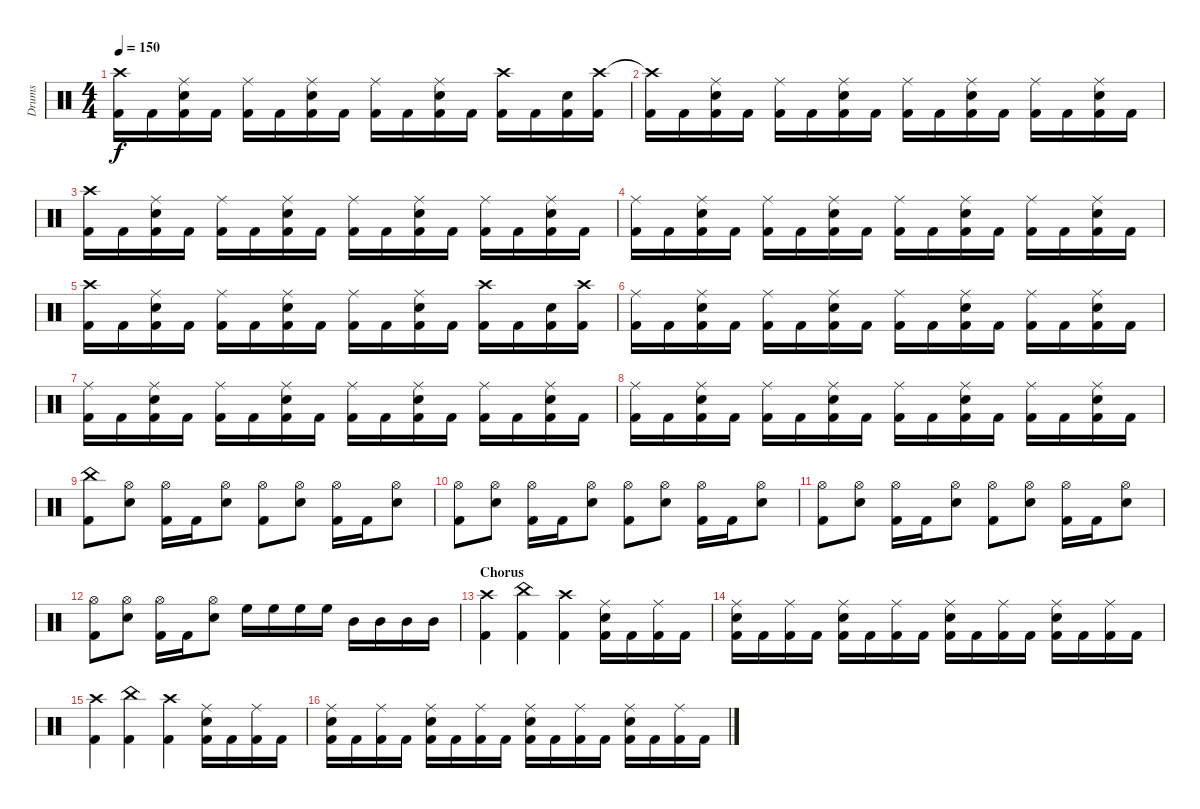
\track ("Drums" "Drums") {instrument percussion}
\staff {score}
\articulation defaults
\ts (4 4)
\tempo 150
\clef neutral
\ks c
("Crash high (hit)" "Kick (hit) 2").16{dy f} "Kick (hit) 2".16 ("Ride (middle)" "Snare (hit) 2" "Kick (hit) 2").16 "Kick (hit) 2".16 ("Ride (middle)" "Kick (hit) 2").16 "Kick (hit) 2".16 ("Ride (middle)" "Snare (hit) 2" "Kick (hit) 2").16 "Kick (hit) 2".16 ("Ride (middle)" "Kick (hit) 2").16 "Kick (hit) 2".16 ("Ride (middle)" "Snare (hit) 2" "Kick (hit) 2").16 "Kick (hit) 2".16 ("Crash high (hit)" "Kick (hit) 2").16 "Kick (hit) 2".16 ("Snare (hit) 2" "Kick (hit) 2").16 ("Crash high (hit)" "Kick (hit) 2").16 |
("Crash high (hit)"{t} "Kick (hit) 2").16 "Kick (hit) 2".16 ("Ride (middle)" "Snare (hit) 2" "Kick (hit) 2").16 "Kick (hit) 2".16 ("Ride (middle)" "Kick (hit) 2").16 "Kick (hit) 2".16 ("Ride (middle)" "Snare (hit) 2" "Kick (hit) 2").16 "Kick (hit) 2".16 ("Ride (middle)" "Kick (hit) 2").16 "Kick (hit) 2".16 ("Ride (middle)" "Snare (hit) 2" "Kick (hit) 2").16 "Kick (hit) 2".16 ("Ride (middle)" "Kick (hit) 2").16 "Kick (hit) 2".16 ("Ride (middle)" "Snare (hit) 2" "Kick (hit) 2").16 "Kick (hit) 2".16 |
("Crash high (hit)" "Kick (hit) 2").16 "Kick (hit) 2".16 ("Ride (middle)" "Snare (hit) 2" "Kick (hit) 2").16 "Kick (hit) 2".16 ("Ride (middle)" "Kick (hit) 2").16 "Kick (hit) 2".16 ("Ride (middle)" "Snare (hit) 2" "Kick (hit) 2").16 "Kick (hit) 2".16 ("Ride (middle)" "Kick (hit) 2").16 "Kick (hit) 2".16 ("Ride (middle)" "Snare (hit) 2" "Kick (hit) 2").16 "Kick (hit) 2".16 ("Ride (middle)" "Kick (hit) 2").16 "Kick (hit) 2".16 ("Ride (middle)" "Snare (hit) 2" "Kick (hit) 2").16 "Kick (hit) 2".16 |
("Ride (middle)" "Kick (hit) 2").16 "Kick (hit) 2".16 ("Ride (middle)" "Snare (hit) 2" "Kick (hit) 2").16 "Kick (hit) 2".16 ("Ride (middle)" "Kick (hit) 2").16 "Kick (hit) 2".16 ("Ride (middle)" "Snare (hit) 2" "Kick (hit) 2").16 "Kick (hit) 2".16 ("Ride (middle)" "Kick (hit) 2").16 "Kick (hit) 2".16 ("Ride (middle)" "Snare (hit) 2" "Kick (hit) 2").16 "Kick (hit) 2".16 ("Ride (middle)" "Kick (hit) 2").16 "Kick (hit) 2".16 ("Ride (middle)" "Snare (hit) 2" "Kick (hit) 2").16 "Kick (hit) 2".16 |
("Crash high (hit)" "Kick (hit) 2").16 "Kick (hit) 2".16 ("Ride (middle)" "Snare (hit) 2" "Kick (hit) 2").16 "Kick (hit) 2".16 ("Ride (middle)" "Kick (hit) 2").16 "Kick (hit) 2".16 ("Ride (middle)" "Snare (hit) 2" "Kick (hit) 2").16 "Kick (hit) 2".16 ("Ride (middle)" "Kick (hit) 2").16 "Kick (hit) 2".16 ("Ride (middle)" "Snare (hit) 2" "Kick (hit) 2").16 "Kick (hit) 2".16 ("Crash high (hit)" "Kick (hit) 2").16 "Kick (hit) 2".16 ("Snare (hit) 2" "Kick (hit) 2").16 ("Crash high (hit)" "Kick (hit) 2").16 |
("Ride (middle)" "Kick (hit) 2").16 "Kick (hit) 2".16 ("Ride (middle)" "Snare (hit) 2" "Kick (hit) 2").16 "Kick (hit) 2".16 ("Ride (middle)" "Kick (hit) 2").16 "Kick (hit) 2".16 ("Ride (middle)" "Snare (hit) 2" "Kick (hit) 2").16 "Kick (hit) 2".16 ("Ride (middle)" "Kick (hit) 2").16 "Kick (hit) 2".16 ("Ride (middle)" "Snare (hit) 2" "Kick (hit) 2").16 "Kick (hit) 2".16 ("Ride (middle)" "Kick (hit) 2").16 "Kick (hit) 2".16 ("Ride (middle)" "Snare (hit) 2" "Kick (hit) 2").16 "Kick (hit) 2".16 |
("Ride (middle)" "Kick (hit) 2").16 "Kick (hit) 2".16 ("Ride (middle)" "Snare (hit) 2" "Kick (hit) 2").16 "Kick (hit) 2".16 ("Ride (middle)" "Kick (hit) 2").16 "Kick (hit) 2".16 ("Ride (middle)" "Snare (hit) 2" "Kick (hit) 2").16 "Kick (hit) 2".16 ("Ride (middle)" "Kick (hit) 2").16 "Kick (hit) 2".16 ("Ride (middle)" "Snare (hit) 2" "Kick (hit) 2").16 "Kick (hit) 2".16 ("Ride (middle)" "Kick (hit) 2").16 "Kick (hit) 2".16 ("Ride (middle)" "Snare (hit) 2" "Kick (hit) 2").16 "Kick (hit) 2".16 |
("Ride (middle)" "Kick (hit) 2").16 "Kick (hit) 2".16 ("Ride (middle)" "Snare (hit) 2" "Kick (hit) 2").16 "Kick (hit) 2".16 ("Ride (middle)" "Kick (hit) 2").16 "Kick (hit) 2".16 ("Ride (middle)" "Snare (hit) 2" "Kick (hit) 2").16 "Kick (hit) 2".16 ("Ride (middle)" "Kick (hit) 2").16 "Kick (hit) 2".16 ("Ride (middle)" "Snare (hit) 2" "Kick (hit) 2").16 "Kick (hit) 2".16 ("Ride (middle)" "Kick (hit) 2").16 "Kick (hit) 2".16 ("Ride (middle)" "Snare (hit) 2" "Kick (hit) 2").16 "Kick (hit) 2".16 |
("China (hit)" "Kick (hit) 2").8 ("Hi-Hat (open)" "Snare (hit) 2").8 ("Hi-Hat (open)" "Kick (hit) 2").16 "Kick (hit) 2".16 ("Hi-Hat (open)" "Snare (hit) 2").8 ("Hi-Hat (open)" "Kick (hit) 2").8 ("Hi-Hat (open)" "Snare (hit) 2").8 ("Hi-Hat (open)" "Kick (hit) 2").16 "Kick (hit) 2".16 ("Hi-Hat (open)" "Snare (hit) 2").8 |
("Hi-Hat (open)" "Kick (hit) 2").8 ("Hi-Hat (open)" "Snare (hit) 2").8 ("Hi-Hat (open)" "Kick (hit) 2").16 "Kick (hit) 2".16 ("Hi-Hat (open)" "Snare (hit) 2").8 ("Hi-Hat (open)" "Kick (hit) 2").8 ("Hi-Hat (open)" "Snare (hit) 2").8 ("Hi-Hat (open)" "Kick (hit) 2").16 "Kick (hit) 2".16 ("Hi-Hat (open)" "Snare (hit) 2").8 |
("Hi-Hat (open)" "Kick (hit) 2").8 ("Hi-Hat (open)" "Snare (hit) 2").8 ("Hi-Hat (open)" "Kick (hit) 2").16 "Kick (hit) 2".16 ("Hi-Hat (open)" "Snare (hit) 2").8 ("Hi-Hat (open)" "Kick (hit) 2").8 ("Hi-Hat (open)" "Snare (hit) 2").8 ("Hi-Hat (open)" "Kick (hit) 2").16 "Kick (hit) 2".16 ("Hi-Hat (open)" "Snare (hit) 2").8 |
("Hi-Hat (open)" "Kick (hit) 2").8 ("Hi-Hat (open)" "Snare (hit) 2").8 ("Hi-Hat (open)" "Kick (hit) 2").16 "Kick (hit) 2".16 ("Hi-Hat (open)" "Snare (hit) 2").8 "High Floor Tom (hit)".16 "High Floor Tom (hit)".16 "High Floor Tom (hit)".16 "High Floor Tom (hit)".16 "Mid Tom (hit)".16 "Mid Tom (hit)".16 "Mid Tom (hit)".16 "Mid Tom (hit)".16 |
\section ("" "Chorus")
("Crash high (hit)" "Kick (hit) 2").4 ("China (hit)" "Kick (hit) 2").4 ("Crash high (hit)" "Kick (hit) 2").4 ("Ride (middle)" "Snare (hit) 2" "Kick (hit) 2").16 "Kick (hit) 2".16 ("Ride (middle)" "Kick (hit) 2").16 "Kick (hit) 2".16 |
("Ride (middle)" "Snare (hit) 2" "Kick (hit) 2").16 "Kick (hit) 2".16 ("Ride (middle)" "Kick (hit) 2").16 "Kick (hit) 2".16 ("Ride (middle)" "Snare (hit) 2" "Kick (hit) 2").16 "Kick (hit) 2".16 ("Ride (middle)" "Kick (hit) 2").16 "Kick (hit) 2".16 ("Ride (middle)" "Snare (hit) 2" "Kick (hit) 2").16 "Kick (hit) 2".16 ("Ride (middle)" "Kick (hit) 2").16 "Kick (hit) 2".16 ("Ride (middle)" "Snare (hit) 2" "Kick (hit) 2").16 "Kick (hit) 2".16 ("Ride (middle)" "Kick (hit) 2").16 "Kick (hit) 2".16 |
("Crash high (hit)" "Kick (hit) 2").4 ("China (hit)" "Kick (hit) 2").4 ("Crash high (hit)" "Kick (hit) 2").4 ("Ride (middle)" "Snare (hit) 2" "Kick (hit) 2").16 "Kick (hit) 2".16 ("Ride (middle)" "Kick (hit) 2").16 "Kick (hit) 2".16 |
("Ride (middle)" "Snare (hit) 2" "Kick (hit) 2").16 "Kick (hit) 2".16 ("Ride (middle)" "Kick (hit) 2").16 "Kick (hit) 2".16 ("Ride (middle)" "Snare (hit) 2" "Kick (hit) 2").16 "Kick (hit) 2".16 ("Ride (middle)" "Kick (hit) 2").16 "Kick (hit) 2".16 ("Ride (middle)" "Snare (hit) 2" "Kick (hit) 2").16 "Kick (hit) 2".16 ("Ride (middle)" "Kick (hit) 2").16 "Kick (hit) 2".16 ("Ride (middle)" "Snare (hit) 2" "Kick (hit) 2").16 "Kick (hit) 2".16 ("Ride (middle)" "Kick (hit) 2").16 "Kick (hit) 2".16
